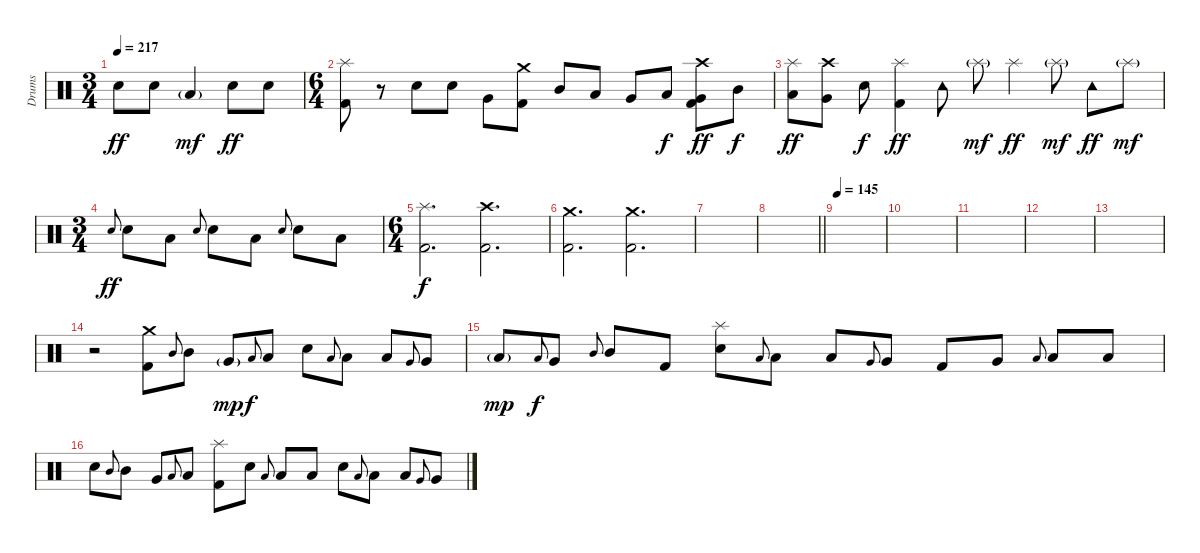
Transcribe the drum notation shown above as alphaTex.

\track ("Drums" "Drums") {instrument percussion}
\staff {score}
\articulation defaults
\ts (3 4)
\tempo 217
\clef neutral
\ks c "Electric Snare (hit)".8{dy ff} "Electric Snare (hit)".8 "Low Floor Tom (hit)"{g}.4{dy mf} "Electric Snare (hit)".8{dy ff} "Electric Snare (hit)".8
|
\ts (6 4)
("Splash (hit)" "Kick (hit) 2").8 r.8 "Electric Snare (hit)".8 "Electric Snare (hit)".8 "Very Low Tom (hit)".8 ("Crash medium (hit)" "Kick (hit) 2").8 "Mid Tom (hit)".8 "Low Tom (hit)".8 "Very Low Tom (hit)".8 "Low Floor Tom (hit)".8{dy f} ("Crash high (hit)" "Very Low Tom (hit)" "Kick (hit) 2").8{dy ff} "Mid Tom (hit)".8{dy f} |
("Splash (hit)" "Low Tom (hit)").8{dy ff} ("Crash high (hit)" "Very Low Tom (hit)").8 "Electric Snare (hit)".8{dy f} ("Splash (hit)" "Kick (hit) 2").4{dy ff} "Tambourine (hit)".8 "Splash (hit)"{g}.8{dy mf} "Splash (hit)".4{dy ff} "Splash (hit)"{g}.8{dy mf} "Tambourine (hit)".8{dy ff} "Splash (hit)"{g}.8{dy mf} |
\ts (3 4)
"Electric Snare (hit)".8{gr onbeat dy ff} "Electric Snare (hit)".8 "Low Floor Tom (hit)".8 "Electric Snare (hit)".8{gr onbeat} "Electric Snare (hit)".8 "Low Floor Tom (hit)".8 "Electric Snare (hit)".8{gr onbeat} "Electric Snare (hit)".8 "Low Floor Tom (hit)".8 |
\ts (6 4)
("Splash (hit)" "Kick (hit) 2").2{d dy f} ("Crash high (hit)" "Kick (hit) 2").2{d} |
("Crash medium (hit)" "Kick (hit) 2").2{d} ("Crash medium (hit)" "Kick (hit) 2").2{d} |
|
\barLineRight lightlight
|
\section ("" "")
\tempo 145
|
|
|
|
|
r.2 ("Crash medium (hit)" "Kick (hit) 2").8 "Mid Tom (hit)".8{gr onbeat} "Mid Tom (hit)".8 "Very Low Tom (hit)"{g}.8{dy mp} "Low Tom (hit)".8{gr onbeat dy f} "Low Tom (hit)".8 "Electric Snare (hit)".8 "Low Tom (hit)".8{gr onbeat} "Low Tom (hit)".8 "Low Floor Tom (hit)".8 "Very Low Tom (hit)".8{gr onbeat} "Very Low Tom (hit)".8 |
"Low Floor Tom (hit)"{g}.8{dy mp} "Low Tom (hit)".8{gr onbeat dy f} "Very Low Tom (hit)".8 "Mid Tom (hit)".8{gr onbeat} "Mid Tom (hit)".8 "Kick (hit) 2".8 ("Splash (hit)" "Electric Snare (hit)").8 "Low Tom (hit)".8{gr onbeat} "Low Tom (hit)".8 "Low Floor Tom (hit)".8 "Very Low Tom (hit)".8{gr onbeat} "Very Low Tom (hit)".8 "Kick (hit) 2".8 "Very Low Tom (hit)".8 "Low Tom (hit)".8{gr onbeat} "Low Tom (hit)".8 "Low Floor Tom (hit)".8 |
"Electric Snare (hit)".8 "Mid Tom (hit)".8{gr onbeat} "Mid Tom (hit)".8 "Very Low Tom (hit)".8 "Low Tom (hit)".8{gr onbeat} "Low Tom (hit)".8 ("Splash (hit)" "Kick (hit) 2").8 "Electric Snare (hit)".8 "Low Tom (hit)".8{gr onbeat} "Low Tom (hit)".8 "Low Floor Tom (hit)".8 "Electric Snare (hit)".8 "Low Tom (hit)".8{gr onbeat} "Low Tom (hit)".8 "Low Floor Tom (hit)".8 "Very Low Tom (hit)".8{gr onbeat} "Very Low Tom (hit)".8
